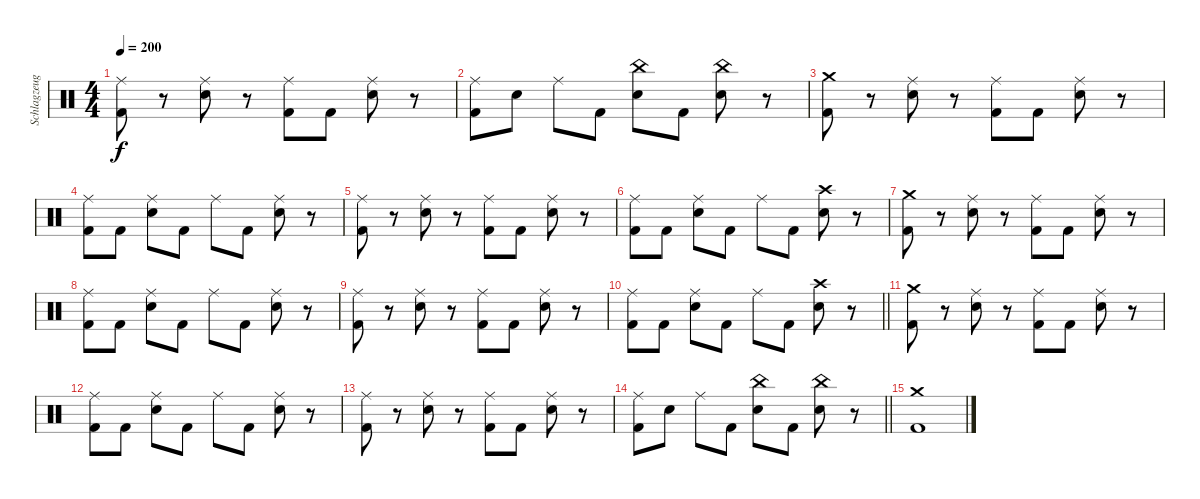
\track ("Schlagzeug" "Schlagzeug") {instrument percussion}
\staff {score}
\articulation defaults
\ts (4 4)
\tempo 200
\clef neutral
\ks c
("Ride (middle)" "Kick (hit) 2").8{dy f} r.8 ("Ride (middle)" "Electric Snare (hit)").8 r.8 ("Ride (middle)" "Kick (hit) 2").8 "Kick (hit) 2".8 ("Ride (middle)" "Electric Snare (hit)").8 r.8 |
("Ride (middle)" "Kick (hit) 2").8 "Electric Snare (hit)".8 "Ride (middle)".8 "Kick (hit) 2".8 ("China (hit)" "Electric Snare (hit)").8 "Kick (hit) 2".8 ("China (hit)" "Electric Snare (hit)").8 r.8 |
("Crash medium (hit)" "Kick (hit) 2").8 r.8 ("Ride (middle)" "Electric Snare (hit)").8 r.8 ("Ride (middle)" "Kick (hit) 2").8 "Kick (hit) 2".8 ("Ride (middle)" "Electric Snare (hit)").8 r.8 |
("Ride (middle)" "Kick (hit) 2").8 "Kick (hit) 2".8 ("Ride (middle)" "Electric Snare (hit)").8 "Kick (hit) 2".8 "Ride (middle)".8 "Kick (hit) 2".8 ("Ride (middle)" "Electric Snare (hit)").8 r.8 |
("Ride (middle)" "Kick (hit) 2").8 r.8 ("Ride (middle)" "Electric Snare (hit)").8 r.8 ("Ride (middle)" "Kick (hit) 2").8 "Kick (hit) 2".8 ("Ride (middle)" "Electric Snare (hit)").8 r.8 |
("Ride (middle)" "Kick (hit) 2").8 "Kick (hit) 2".8 ("Ride (middle)" "Electric Snare (hit)").8 "Kick (hit) 2".8 "Ride (middle)".8 "Kick (hit) 2".8 ("Crash high (hit)" "Electric Snare (hit)").8 r.8 |
("Crash medium (hit)" "Kick (hit) 2").8 r.8 ("Ride (middle)" "Electric Snare (hit)").8 r.8 ("Ride (middle)" "Kick (hit) 2").8 "Kick (hit) 2".8 ("Ride (middle)" "Electric Snare (hit)").8 r.8 |
("Ride (middle)" "Kick (hit) 2").8 "Kick (hit) 2".8 ("Ride (middle)" "Electric Snare (hit)").8 "Kick (hit) 2".8 "Ride (middle)".8 "Kick (hit) 2".8 ("Ride (middle)" "Electric Snare (hit)").8 r.8 |
("Ride (middle)" "Kick (hit) 2").8 r.8 ("Ride (middle)" "Electric Snare (hit)").8 r.8 ("Ride (middle)" "Kick (hit) 2").8 "Kick (hit) 2".8 ("Ride (middle)" "Electric Snare (hit)").8 r.8 |
\barLineRight lightlight
("Ride (middle)" "Kick (hit) 2").8 "Kick (hit) 2".8 ("Ride (middle)" "Electric Snare (hit)").8 "Kick (hit) 2".8 "Ride (middle)".8 "Kick (hit) 2".8 ("Crash high (hit)" "Electric Snare (hit)").8 r.8 |
("Crash medium (hit)" "Kick (hit) 2").8 r.8 ("Ride (middle)" "Electric Snare (hit)").8 r.8 ("Ride (middle)" "Kick (hit) 2").8 "Kick (hit) 2".8 ("Ride (middle)" "Electric Snare (hit)").8 r.8 |
("Ride (middle)" "Kick (hit) 2").8 "Kick (hit) 2".8 ("Ride (middle)" "Electric Snare (hit)").8 "Kick (hit) 2".8 "Ride (middle)".8 "Kick (hit) 2".8 ("Ride (middle)" "Electric Snare (hit)").8 r.8 |
("Ride (middle)" "Kick (hit) 2").8 r.8 ("Ride (middle)" "Electric Snare (hit)").8 r.8 ("Ride (middle)" "Kick (hit) 2").8 "Kick (hit) 2".8 ("Ride (middle)" "Electric Snare (hit)").8 r.8 |
\barLineRight lightlight
("Ride (middle)" "Kick (hit) 2").8 "Electric Snare (hit)".8 "Ride (middle)".8 "Kick (hit) 2".8 ("China (hit)" "Electric Snare (hit)").8 "Kick (hit) 2".8 ("China (hit)" "Electric Snare (hit)").8 r.8 |
("Crash medium (hit)" "Kick (hit) 2").1
